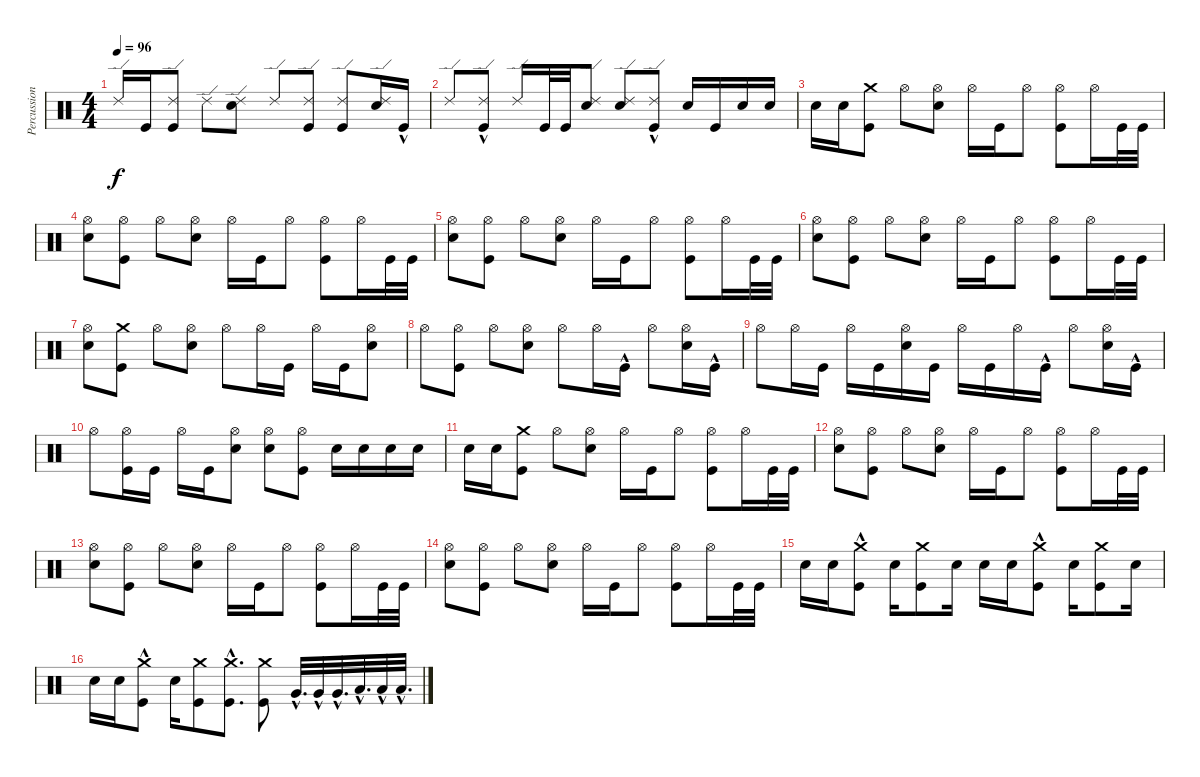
\track ("Percussion" "Percussion") {instrument percussion}
\staff {score}
\articulation defaults
\ts (4 4)
\tempo 96
\clef neutral
\ks c "Ride (edge) 2".16{dy f} "Kick (hit)".16
("Kick (hit)" "Ride (edge) 2").8 "Ride (edge) 2".8 ("Electric Snare (hit)" "Ride (edge) 2").8 "Ride (edge) 2".8 ("Kick (hit)" "Ride (edge) 2").8 ("Kick (hit)" "Ride (edge) 2").8 ("Electric Snare (hit)" "Ride (edge) 2").16 "Kick (hit)"{hac}.16 |
"Ride (edge) 2".8 ("Kick (hit)"{hac} "Ride (edge) 2").8 "Ride (edge) 2".16 "Kick (hit)".32 "Kick (hit)".32 ("Electric Snare (hit)" "Ride (edge) 2").8 ("Electric Snare (hit)" "Ride (edge) 2").8 ("Kick (hit)"{hac} "Ride (edge) 2").8 "Electric Snare (hit)".16 "Kick (hit)".16 "Snare (hit) 2".16 "Electric Snare (hit)".16 |
"Electric Snare (hit)".16 "Electric Snare (hit)".16 ("Kick (hit)" "Crash medium (hit)").8 "Hi-Hat (open)".8 ("Electric Snare (hit)" "Hi-Hat (open)").8 "Hi-Hat (open)".16 "Kick (hit)".16 "Hi-Hat (open)".8 ("Kick (hit)" "Hi-Hat (open)").8 "Hi-Hat (open)".16 "Kick (hit)".32 "Kick (hit)".32 |
("Electric Snare (hit)" "Hi-Hat (open)").8 ("Kick (hit)" "Hi-Hat (open)").8 "Hi-Hat (open)".8 ("Electric Snare (hit)" "Hi-Hat (open)").8 "Hi-Hat (open)".16 "Kick (hit)".16 "Hi-Hat (open)".8 ("Kick (hit)" "Hi-Hat (open)").8 "Hi-Hat (open)".16 "Kick (hit)".32 "Kick (hit)".32 |
("Electric Snare (hit)" "Hi-Hat (open)").8 ("Kick (hit)" "Hi-Hat (open)").8 "Hi-Hat (open)".8 ("Electric Snare (hit)" "Hi-Hat (open)").8 "Hi-Hat (open)".16 "Kick (hit)".16 "Hi-Hat (open)".8 ("Kick (hit)" "Hi-Hat (open)").8 "Hi-Hat (open)".16 "Kick (hit)".32 "Kick (hit)".32 |
("Electric Snare (hit)" "Hi-Hat (open)").8 ("Kick (hit)" "Hi-Hat (open)").8 "Hi-Hat (open)".8 ("Electric Snare (hit)" "Hi-Hat (open)").8 "Hi-Hat (open)".16 "Kick (hit)".16 "Hi-Hat (open)".8 ("Kick (hit)" "Hi-Hat (open)").8 "Hi-Hat (open)".16 "Kick (hit)".32 "Kick (hit)".32 |
("Electric Snare (hit)" "Hi-Hat (open)").8 ("Kick (hit)" "Crash medium (hit)").8 "Hi-Hat (open)".8 ("Electric Snare (hit)" "Hi-Hat (open)").8 "Hi-Hat (open)".8 "Hi-Hat (open)".16 "Kick (hit)".16 "Hi-Hat (open)".16 "Kick (hit)".16 ("Electric Snare (hit)" "Hi-Hat (open)").8 |
"Hi-Hat (open)".8 ("Kick (hit)" "Hi-Hat (open)").8 "Hi-Hat (open)".8 ("Electric Snare (hit)" "Hi-Hat (open)").8 "Hi-Hat (open)".8 "Hi-Hat (open)".16 "Kick (hit)"{hac}.16 "Hi-Hat (open)".8 ("Electric Snare (hit)" "Hi-Hat (open)").16 "Kick (hit)"{hac}.16 |
"Hi-Hat (open)".8 "Hi-Hat (open)".16 "Kick (hit)".16 "Hi-Hat (open)".16 "Kick (hit)".16 ("Electric Snare (hit)" "Hi-Hat (open)").16 "Kick (hit)".16 "Hi-Hat (open)".16 "Kick (hit)".16 "Hi-Hat (open)".16 "Kick (hit)"{hac}.16 "Hi-Hat (open)".8 ("Electric Snare (hit)" "Hi-Hat (open)").16 "Kick (hit)"{hac}.16 |
"Hi-Hat (open)".8 ("Kick (hit)" "Hi-Hat (open)").16 "Kick (hit)".16 "Hi-Hat (open)".16 "Kick (hit)".16 ("Electric Snare (hit)" "Hi-Hat (open)").8 ("Electric Snare (hit)" "Hi-Hat (open)").8 ("Kick (hit)" "Hi-Hat (open)").8 "Electric Snare (hit)".16 "Electric Snare (hit)".16 "Electric Snare (hit)".16 "Electric Snare (hit)".16 |
"Electric Snare (hit)".16 "Electric Snare (hit)".16 ("Kick (hit)" "Crash medium (hit)").8 "Hi-Hat (open)".8 ("Electric Snare (hit)" "Hi-Hat (open)").8 "Hi-Hat (open)".16 "Kick (hit)".16 "Hi-Hat (open)".8 ("Kick (hit)" "Hi-Hat (open)").8 "Hi-Hat (open)".16 "Kick (hit)".32 "Kick (hit)".32 |
("Electric Snare (hit)" "Hi-Hat (open)").8 ("Kick (hit)" "Hi-Hat (open)").8 "Hi-Hat (open)".8 ("Electric Snare (hit)" "Hi-Hat (open)").8 "Hi-Hat (open)".16 "Kick (hit)".16 "Hi-Hat (open)".8 ("Kick (hit)" "Hi-Hat (open)").8 "Hi-Hat (open)".16 "Kick (hit)".32 "Kick (hit)".32 |
("Electric Snare (hit)" "Hi-Hat (open)").8 ("Kick (hit)" "Hi-Hat (open)").8 "Hi-Hat (open)".8 ("Electric Snare (hit)" "Hi-Hat (open)").8 "Hi-Hat (open)".16 "Kick (hit)".16 "Hi-Hat (open)".8 ("Kick (hit)" "Hi-Hat (open)").8 "Hi-Hat (open)".16 "Kick (hit)".32 "Kick (hit)".32 |
("Electric Snare (hit)" "Hi-Hat (open)").8 ("Kick (hit)" "Hi-Hat (open)").8 "Hi-Hat (open)".8 ("Electric Snare (hit)" "Hi-Hat (open)").8 "Hi-Hat (open)".16 "Kick (hit)".16 "Hi-Hat (open)".8 ("Kick (hit)" "Hi-Hat (open)").8 "Hi-Hat (open)".16 "Kick (hit)".32 "Kick (hit)".32 |
"Electric Snare (hit)".16 "Electric Snare (hit)".16 ("Kick (hit)"{hac} "Crash medium (hit)").8 "Electric Snare (hit)".16 ("Kick (hit)" "Crash medium (hit)").8 "Electric Snare (hit)".16 "Electric Snare (hit)".16 "Electric Snare (hit)".16 ("Kick (hit)"{hac} "Crash medium (hit)").8 "Electric Snare (hit)".16 ("Crash medium (hit)" "Kick (hit)").8 "Electric Snare (hit)".16 |
"Electric Snare (hit)".16 "Electric Snare (hit)".16 ("Kick (hit)"{hac} "Crash medium (hit)").8 "Electric Snare (hit)".16 ("Kick (hit)" "Crash medium (hit)").8 ("Kick (hit)"{hac} "Crash medium (hit)"{hac}).8{d} ("Kick (hit)" "Crash medium (hit)").8 "Very Low Tom (hit)"{hac}.32{d} "Very Low Tom (hit)"{hac}.32 "Very Low Tom (hit)"{hac}.32{d} "Low Floor Tom (hit)"{hac}.32{d} "Low Floor Tom (hit)"{hac}.32 "Low Floor Tom (hit)"{hac}.32{d}
